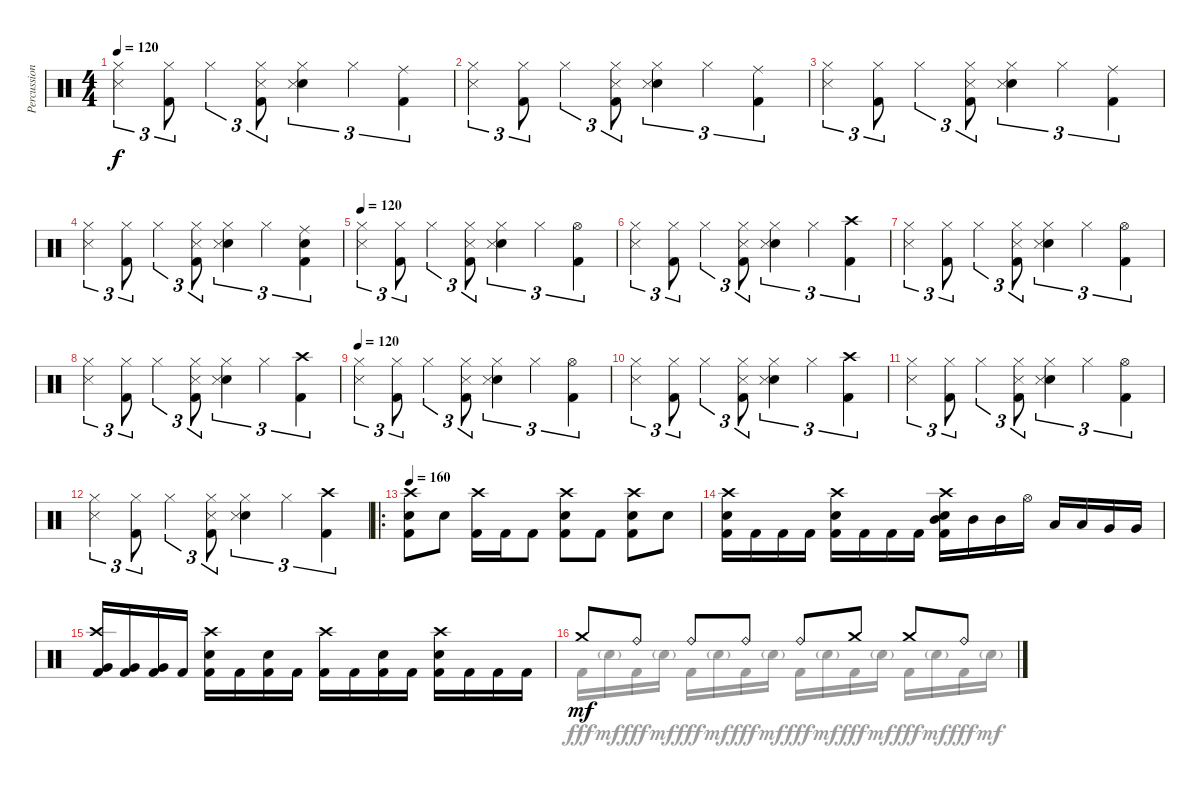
\track ("Percussion" "Percussion") {instrument percussion}
\staff {score}
\articulation defaults
\voice
\ts (4 4)
\tempo 120
\clef neutral
\ks c
("Hi-Hat (closed)" "Snare (side stick) 3").4{tu (3 2) dy f} ("Hi-Hat (closed)" "Kick (hit) 2").8{tu (3 2)} "Hi-Hat (closed)".4{tu (3 2)} ("Hi-Hat (closed)" "Snare (side stick) 3" "Kick (hit) 2").8{tu (3 2)} ("Hi-Hat (closed)" "Snare (hit) 2" "Snare (side stick) 3").4{tu (3 2)} "Hi-Hat (closed)".4{tu (3 2)} ("Ride (middle)" "Kick (hit) 2").4{tu (3 2)} |
("Hi-Hat (closed)" "Snare (side stick) 3").4{tu (3 2)} ("Hi-Hat (closed)" "Kick (hit) 2").8{tu (3 2)} "Hi-Hat (closed)".4{tu (3 2)} ("Hi-Hat (closed)" "Snare (side stick) 3" "Kick (hit) 2").8{tu (3 2)} ("Hi-Hat (closed)" "Snare (hit) 2" "Snare (side stick) 3").4{tu (3 2)} "Hi-Hat (closed)".4{tu (3 2)} ("Ride (middle)" "Kick (hit) 2").4{tu (3 2)} |
("Hi-Hat (closed)" "Snare (side stick) 3").4{tu (3 2)} ("Hi-Hat (closed)" "Kick (hit) 2").8{tu (3 2)} "Hi-Hat (closed)".4{tu (3 2)} ("Hi-Hat (closed)" "Snare (side stick) 3" "Kick (hit) 2").8{tu (3 2)} ("Hi-Hat (closed)" "Snare (hit) 2" "Snare (side stick) 3").4{tu (3 2)} "Hi-Hat (closed)".4{tu (3 2)} ("Ride (middle)" "Kick (hit) 2").4{tu (3 2)} |
("Hi-Hat (closed)" "Snare (side stick) 3").4{tu (3 2)} ("Hi-Hat (closed)" "Kick (hit) 2").8{tu (3 2)} "Hi-Hat (closed)".4{tu (3 2)} ("Hi-Hat (closed)" "Snare (side stick) 3" "Kick (hit) 2").8{tu (3 2)} ("Hi-Hat (closed)" "Snare (hit) 2" "Snare (side stick) 3").4{tu (3 2)} "Hi-Hat (closed)".4{tu (3 2)} ("Ride (middle)" "Snare (hit)" "Kick (hit) 2").4{tu (3 2)} |
\tempo 120
("Hi-Hat (closed)" "Snare (side stick) 3").4{tu (3 2)} ("Hi-Hat (closed)" "Kick (hit) 2").8{tu (3 2)} "Hi-Hat (closed)".4{tu (3 2)} ("Hi-Hat (closed)" "Snare (side stick) 3" "Kick (hit) 2").8{tu (3 2)} ("Hi-Hat (closed)" "Snare (hit) 2" "Snare (side stick) 3").4{tu (3 2)} "Hi-Hat (closed)".4{tu (3 2)} ("Hi-Hat (open)" "Kick (hit) 2").4{tu (3 2)} |
("Hi-Hat (closed)" "Snare (side stick) 3").4{tu (3 2)} ("Hi-Hat (closed)" "Kick (hit) 2").8{tu (3 2)} "Hi-Hat (closed)".4{tu (3 2)} ("Hi-Hat (closed)" "Snare (side stick) 3" "Kick (hit) 2").8{tu (3 2)} ("Hi-Hat (closed)" "Snare (hit) 2" "Snare (side stick) 3").4{tu (3 2)} "Hi-Hat (closed)".4{tu (3 2)} ("Crash high (hit)" "Kick (hit) 2").4{tu (3 2)} |
("Hi-Hat (closed)" "Snare (side stick) 3").4{tu (3 2)} ("Hi-Hat (closed)" "Kick (hit) 2").8{tu (3 2)} "Hi-Hat (closed)".4{tu (3 2)} ("Hi-Hat (closed)" "Snare (side stick) 3" "Kick (hit) 2").8{tu (3 2)} ("Hi-Hat (closed)" "Snare (hit) 2" "Snare (side stick) 3").4{tu (3 2)} "Hi-Hat (closed)".4{tu (3 2)} ("Hi-Hat (open)" "Kick (hit) 2").4{tu (3 2)} |
("Hi-Hat (closed)" "Snare (side stick) 3").4{tu (3 2)} ("Hi-Hat (closed)" "Kick (hit) 2").8{tu (3 2)} "Hi-Hat (closed)".4{tu (3 2)} ("Hi-Hat (closed)" "Snare (side stick) 3" "Kick (hit) 2").8{tu (3 2)} ("Hi-Hat (closed)" "Snare (hit) 2" "Snare (side stick) 3").4{tu (3 2)} "Hi-Hat (closed)".4{tu (3 2)} ("Crash high (hit)" "Kick (hit) 2").4{tu (3 2)} |
\tempo 120
("Hi-Hat (closed)" "Snare (side stick) 3").4{tu (3 2)} ("Hi-Hat (closed)" "Kick (hit) 2").8{tu (3 2)} "Hi-Hat (closed)".4{tu (3 2)} ("Hi-Hat (closed)" "Snare (side stick) 3" "Kick (hit) 2").8{tu (3 2)} ("Hi-Hat (closed)" "Snare (hit) 2" "Snare (side stick) 3").4{tu (3 2)} "Hi-Hat (closed)".4{tu (3 2)} ("Hi-Hat (open)" "Kick (hit) 2").4{tu (3 2)} |
("Hi-Hat (closed)" "Snare (side stick) 3").4{tu (3 2)} ("Hi-Hat (closed)" "Kick (hit) 2").8{tu (3 2)} "Hi-Hat (closed)".4{tu (3 2)} ("Hi-Hat (closed)" "Snare (side stick) 3" "Kick (hit) 2").8{tu (3 2)} ("Hi-Hat (closed)" "Snare (hit) 2" "Snare (side stick) 3").4{tu (3 2)} "Hi-Hat (closed)".4{tu (3 2)} ("Crash high (hit)" "Kick (hit) 2").4{tu (3 2)} |
("Hi-Hat (closed)" "Snare (side stick) 3").4{tu (3 2)} ("Hi-Hat (closed)" "Kick (hit) 2").8{tu (3 2)} "Hi-Hat (closed)".4{tu (3 2)} ("Hi-Hat (closed)" "Snare (side stick) 3" "Kick (hit) 2").8{tu (3 2)} ("Hi-Hat (closed)" "Snare (hit) 2" "Snare (side stick) 3").4{tu (3 2)} "Hi-Hat (closed)".4{tu (3 2)} ("Hi-Hat (open)" "Kick (hit) 2").4{tu (3 2)} |
("Hi-Hat (closed)" "Snare (side stick) 3").4{tu (3 2)} ("Hi-Hat (closed)" "Kick (hit) 2").8{tu (3 2)} "Hi-Hat (closed)".4{tu (3 2)} ("Hi-Hat (closed)" "Snare (side stick) 3" "Kick (hit) 2").8{tu (3 2)} ("Hi-Hat (closed)" "Snare (hit) 2" "Snare (side stick) 3").4{tu (3 2)} "Hi-Hat (closed)".4{tu (3 2)} ("Crash high (hit)" "Kick (hit) 2").4{tu (3 2)} |
\ro
\tempo 160
("Crash high (hit)" "Snare (hit) 2" "Kick (hit) 2").8 "Snare (hit) 2".8 ("Crash high (hit)" "Kick (hit) 2").16 "Kick (hit) 2".16 "Kick (hit) 2".8 ("Crash high (hit)" "Snare (hit) 2" "Kick (hit) 2").8 "Kick (hit) 2".8 ("Crash high (hit)" "Snare (hit) 2" "Kick (hit) 2").8 "Snare (hit) 2".8 |
("Crash high (hit)" "Snare (hit) 2" "Kick (hit) 2").16 "Kick (hit) 2".16 "Kick (hit) 2".16 "Kick (hit) 2".16 ("Crash high (hit)" "Snare (hit) 2" "Kick (hit) 2").16 "Kick (hit) 2".16 "Kick (hit) 2".16 "Kick (hit) 2".16 ("Crash high (hit)" "Snare (hit) 2" "Mid Tom (hit)" "Kick (hit) 2").16 "Mid Tom (hit)".16 "Mid Tom (hit)".16 "Hi-Hat (open)".16 "Low Tom (hit)".16 "Low Tom (hit)".16 "Very Low Tom (hit)".16 "Very Low Tom (hit)".16 |
("Crash high (hit)" "Very Low Tom (hit)" "Kick (hit) 2").16 ("Very Low Tom (hit)" "Kick (hit) 2").16 ("Very Low Tom (hit)" "Kick (hit) 2").16 "Kick (hit) 2".16 ("Crash high (hit)" "Snare (hit) 2" "Kick (hit) 2").16 "Kick (hit) 2".16 ("Snare (hit) 2" "Kick (hit) 2").16 "Kick (hit) 2".16 ("Crash high (hit)" "Kick (hit) 2").16 "Kick (hit) 2".16 ("Snare (hit) 2" "Kick (hit) 2").16 "Kick (hit) 2".16 ("Crash high (hit)" "Snare (hit) 2" "Kick (hit) 2").16 "Kick (hit) 2".16 "Kick (hit) 2".16 "Kick (hit) 2".16 |
"Crash medium (hit)".8{dy mf} "Ride (bell)".8 "Ride (bell)".8 "Ride (bell)".8 "Ride (bell)".8 "Crash medium (hit)".8 "Crash medium (hit)".8 "Ride (bell)".8
\voice
\clef neutral
\ottava regular
\simile none
\ks c
|
|
|
|
|
|
|
|
|
|
|
|
|
|
|
"Kick (hit) 2".16{dy fff} "Electric Snare (hit)"{g}.16{dy mf} "Kick (hit) 2".16{dy fff} "Electric Snare (hit)"{g}.16{dy mf} "Kick (hit) 2".16{dy fff} "Electric Snare (hit)"{g}.16{dy mf} "Kick (hit) 2".16{dy fff} "Electric Snare (hit)"{g}.16{dy mf} "Kick (hit) 2".16{dy fff} "Electric Snare (hit)"{g}.16{dy mf} "Kick (hit) 2".16{dy fff} "Electric Snare (hit)"{g}.16{dy mf} "Kick (hit) 2".16{dy fff} "Electric Snare (hit)"{g}.16{dy mf} "Kick (hit) 2".16{dy fff} "Electric Snare (hit)"{g}.16{dy mf}
